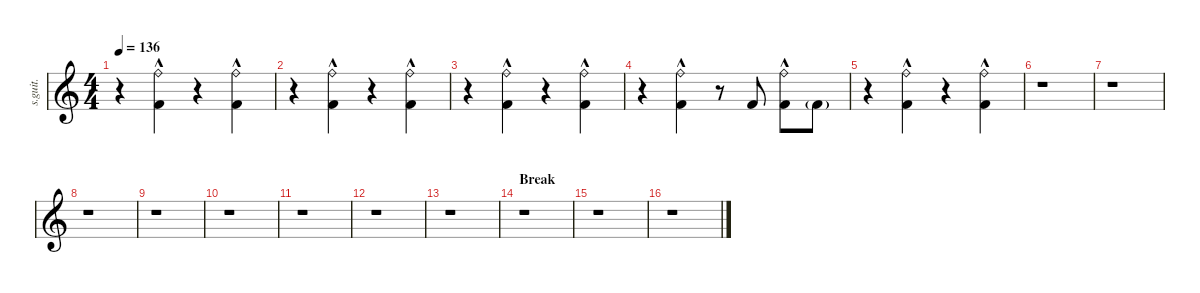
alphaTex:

\defaultSystemsLayout 4
\hideDynamics
\bracketExtendMode nobrackets
\track ("Chris Fehn" "s.guit.") {instrument percussion}
\staff {score}
\articulation defaults
\ts (4 4)
\tempo 136
\clef g2
\ks c
r.4{dy fff} ("Ride (bell)"{hac} "Kick (hit) 2"{hac}).4{lyrics (0 "") lyrics (1 "") lyrics (2 "") lyrics (3 "") lyrics (4 "")} r.4 ("Ride (bell)"{hac} "Kick (hit) 2"{hac}).4{lyrics (0 "") lyrics (1 "") lyrics (2 "") lyrics (3 "") lyrics (4 "")} |
r.4 ("Ride (bell)"{hac} "Kick (hit) 2"{hac}).4{lyrics (0 "") lyrics (1 "") lyrics (2 "") lyrics (3 "") lyrics (4 "")} r.4 ("Ride (bell)"{hac} "Kick (hit) 2"{hac}).4{lyrics (0 "") lyrics (1 "") lyrics (2 "") lyrics (3 "") lyrics (4 "")} |
r.4 ("Ride (bell)"{hac} "Kick (hit) 2"{hac}).4{lyrics (0 "") lyrics (1 "") lyrics (2 "") lyrics (3 "") lyrics (4 "")} r.4 ("Ride (bell)"{hac} "Kick (hit) 2"{hac}).4{lyrics (0 "") lyrics (1 "") lyrics (2 "") lyrics (3 "") lyrics (4 "")} |
r.4 ("Ride (bell)"{hac} "Kick (hit) 2"{hac}).4{lyrics (0 "") lyrics (1 "") lyrics (2 "") lyrics (3 "") lyrics (4 "")} r.8 "Kick (hit) 2".8{lyrics (0 "") lyrics (1 "") lyrics (2 "") lyrics (3 "") lyrics (4 "")} ("Ride (bell)"{hac} "Kick (hit) 2"{hac}).8{lyrics (0 "") lyrics (1 "") lyrics (2 "") lyrics (3 "") lyrics (4 "")} "Kick (hit) 2"{g}.8{lyrics (0 "") lyrics (1 "") lyrics (2 "") lyrics (3 "") lyrics (4 "")} |
r.4 ("Ride (bell)"{hac} "Kick (hit) 2"{hac}).4{lyrics (0 "") lyrics (1 "") lyrics (2 "") lyrics (3 "") lyrics (4 "")} r.4 ("Ride (bell)"{hac} "Kick (hit) 2"{hac}).4{lyrics (0 "") lyrics (1 "") lyrics (2 "") lyrics (3 "") lyrics (4 "")} |
r.1 |
r.1 |
r.1 |
r.1 |
r.1 |
r.1 |
r.1 |
r.1 |
\section ("" "Break")
r.1 |
r.1 |
r.1
